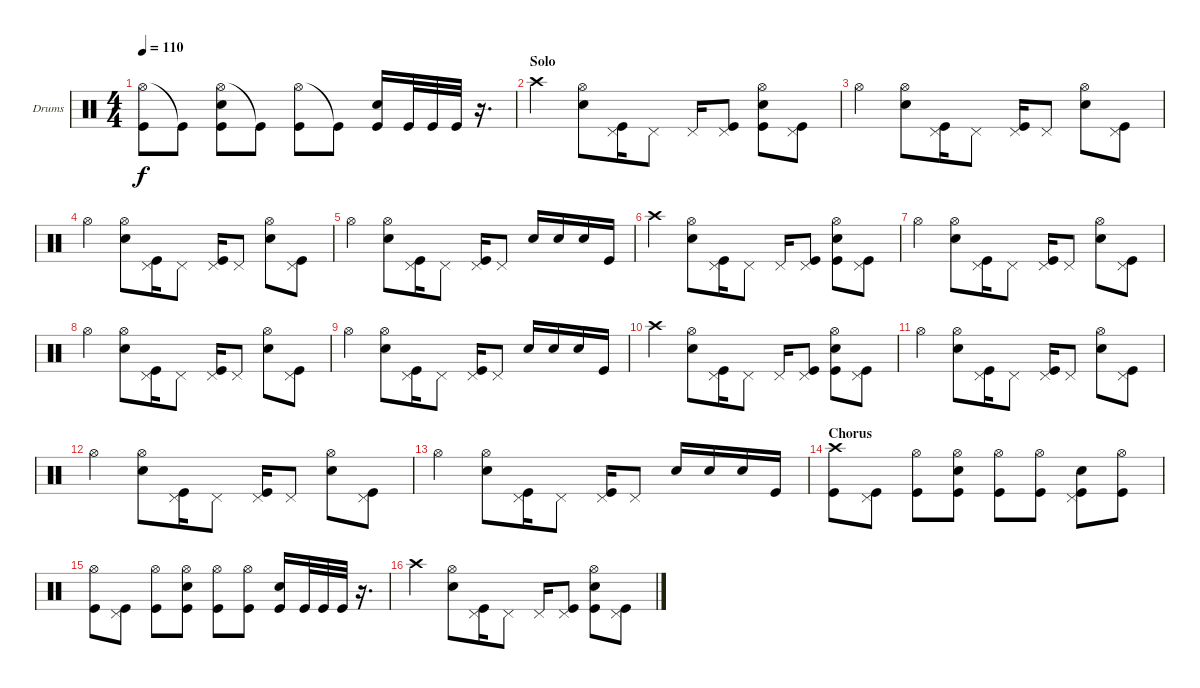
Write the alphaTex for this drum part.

\bracketExtendMode groupsimilarinstruments
\firstSystemTrackNameOrientation horizontal
\otherSystemsTrackNameOrientation horizontal
\track ("Drumkit" "Drums") {instrument percussion}
\staff {score}
\articulation defaults
\ts (4 4)
\tempo 110
\clef neutral
\ks c
("Hi-Hat (open)" "Kick (hit)").8{dy f} "Kick (hit)"{t}.8 ("Hi-Hat (open)" "Snare (hit) 2" "Kick (hit)").8 "Kick (hit)"{t}.8 ("Hi-Hat (open)" "Kick (hit)").8 "Kick (hit)"{t}.8 ("Snare (hit) 2" "Kick (hit)").16 "Kick (hit)".32 "Kick (hit)".32 "Kick (hit)".32 r.16{d} |
\section ("" "Solo")
"Crash high (hit)".4 ("Hi-Hat (open)" "Snare (hit) 2").8 ("Pedal Hi-Hat (hit)" "Kick (hit)").16 "Pedal Hi-Hat (hit)".8 "Pedal Hi-Hat (hit)".16 ("Pedal Hi-Hat (hit)" "Kick (hit)").8 ("Hi-Hat (open)" "Snare (hit) 2" "Kick (hit)").8 ("Pedal Hi-Hat (hit)" "Kick (hit)").8 |
"Hi-Hat (open)".4 ("Hi-Hat (open)" "Snare (hit) 2").8 ("Pedal Hi-Hat (hit)" "Kick (hit)").16 "Pedal Hi-Hat (hit)".8 ("Pedal Hi-Hat (hit)" "Kick (hit)").16 "Pedal Hi-Hat (hit)".8 ("Hi-Hat (open)" "Snare (hit) 2").8 ("Pedal Hi-Hat (hit)" "Kick (hit)").8 |
"Hi-Hat (open)".4 ("Hi-Hat (open)" "Snare (hit) 2").8 ("Pedal Hi-Hat (hit)" "Kick (hit)").16 "Pedal Hi-Hat (hit)".8 ("Pedal Hi-Hat (hit)" "Kick (hit)").16 "Pedal Hi-Hat (hit)".8 ("Hi-Hat (open)" "Snare (hit) 2").8 ("Pedal Hi-Hat (hit)" "Kick (hit)").8 |
"Hi-Hat (open)".4 ("Hi-Hat (open)" "Snare (hit) 2").8 ("Pedal Hi-Hat (hit)" "Kick (hit)").16 "Pedal Hi-Hat (hit)".8 ("Pedal Hi-Hat (hit)" "Kick (hit)").16 "Pedal Hi-Hat (hit)".8 "Snare (hit) 2".16 "Snare (hit) 2".16 "Snare (hit) 2".16 "Kick (hit)".16 |
"Crash high (hit)".4 ("Hi-Hat (open)" "Snare (hit) 2").8 ("Pedal Hi-Hat (hit)" "Kick (hit)").16 "Pedal Hi-Hat (hit)".8 "Pedal Hi-Hat (hit)".16 ("Pedal Hi-Hat (hit)" "Kick (hit)").8 ("Hi-Hat (open)" "Snare (hit) 2" "Kick (hit)").8 ("Pedal Hi-Hat (hit)" "Kick (hit)").8 |
"Hi-Hat (open)".4 ("Hi-Hat (open)" "Snare (hit) 2").8 ("Pedal Hi-Hat (hit)" "Kick (hit)").16 "Pedal Hi-Hat (hit)".8 ("Pedal Hi-Hat (hit)" "Kick (hit)").16 "Pedal Hi-Hat (hit)".8 ("Hi-Hat (open)" "Snare (hit) 2").8 ("Pedal Hi-Hat (hit)" "Kick (hit)").8 |
"Hi-Hat (open)".4 ("Hi-Hat (open)" "Snare (hit) 2").8 ("Pedal Hi-Hat (hit)" "Kick (hit)").16 "Pedal Hi-Hat (hit)".8 ("Pedal Hi-Hat (hit)" "Kick (hit)").16 "Pedal Hi-Hat (hit)".8 ("Hi-Hat (open)" "Snare (hit) 2").8 ("Pedal Hi-Hat (hit)" "Kick (hit)").8 |
"Hi-Hat (open)".4 ("Hi-Hat (open)" "Snare (hit) 2").8 ("Pedal Hi-Hat (hit)" "Kick (hit)").16 "Pedal Hi-Hat (hit)".8 ("Pedal Hi-Hat (hit)" "Kick (hit)").16 "Pedal Hi-Hat (hit)".8 "Snare (hit) 2".16 "Snare (hit) 2".16 "Snare (hit) 2".16 "Kick (hit)".16 |
"Crash high (hit)".4 ("Hi-Hat (open)" "Snare (hit) 2").8 ("Pedal Hi-Hat (hit)" "Kick (hit)").16 "Pedal Hi-Hat (hit)".8 "Pedal Hi-Hat (hit)".16 ("Pedal Hi-Hat (hit)" "Kick (hit)").8 ("Hi-Hat (open)" "Snare (hit) 2" "Kick (hit)").8 ("Pedal Hi-Hat (hit)" "Kick (hit)").8 |
"Hi-Hat (open)".4 ("Hi-Hat (open)" "Snare (hit) 2").8 ("Pedal Hi-Hat (hit)" "Kick (hit)").16 "Pedal Hi-Hat (hit)".8 ("Pedal Hi-Hat (hit)" "Kick (hit)").16 "Pedal Hi-Hat (hit)".8 ("Hi-Hat (open)" "Snare (hit) 2").8 ("Pedal Hi-Hat (hit)" "Kick (hit)").8 |
"Hi-Hat (open)".4 ("Hi-Hat (open)" "Snare (hit) 2").8 ("Pedal Hi-Hat (hit)" "Kick (hit)").16 "Pedal Hi-Hat (hit)".8 ("Pedal Hi-Hat (hit)" "Kick (hit)").16 "Pedal Hi-Hat (hit)".8 ("Hi-Hat (open)" "Snare (hit) 2").8 ("Pedal Hi-Hat (hit)" "Kick (hit)").8 |
"Hi-Hat (open)".4 ("Hi-Hat (open)" "Snare (hit) 2").8 ("Pedal Hi-Hat (hit)" "Kick (hit)").16 "Pedal Hi-Hat (hit)".8 ("Pedal Hi-Hat (hit)" "Kick (hit)").16 "Pedal Hi-Hat (hit)".8 "Snare (hit) 2".16 "Snare (hit) 2".16 "Snare (hit) 2".16 "Kick (hit)".16 |
\section ("" "Chorus")
("Crash high (hit)" "Kick (hit)").8 ("Pedal Hi-Hat (hit)" "Kick (hit)").8 ("Hi-Hat (open)" "Kick (hit)").8 ("Hi-Hat (open)" "Snare (hit) 2" "Kick (hit)").8 ("Hi-Hat (open)" "Kick (hit)").8 ("Hi-Hat (open)" "Kick (hit)").8 ("Pedal Hi-Hat (hit)" "Snare (hit) 2" "Kick (hit)").8 ("Hi-Hat (open)" "Kick (hit)").8 |
("Hi-Hat (open)" "Kick (hit)").8 ("Pedal Hi-Hat (hit)" "Kick (hit)").8 ("Hi-Hat (open)" "Kick (hit)").8 ("Hi-Hat (open)" "Snare (hit) 2" "Kick (hit)").8 ("Hi-Hat (open)" "Kick (hit)").8 ("Hi-Hat (open)" "Kick (hit)").8 ("Snare (hit) 2" "Kick (hit)").16 "Kick (hit)".32 "Kick (hit)".32 "Kick (hit)".32 r.16{d} |
"Crash high (hit)".4 ("Hi-Hat (open)" "Snare (hit) 2").8 ("Pedal Hi-Hat (hit)" "Kick (hit)").16 "Pedal Hi-Hat (hit)".8 "Pedal Hi-Hat (hit)".16 ("Pedal Hi-Hat (hit)" "Kick (hit)").8 ("Hi-Hat (open)" "Snare (hit) 2" "Kick (hit)").8 ("Pedal Hi-Hat (hit)" "Kick (hit)").8
